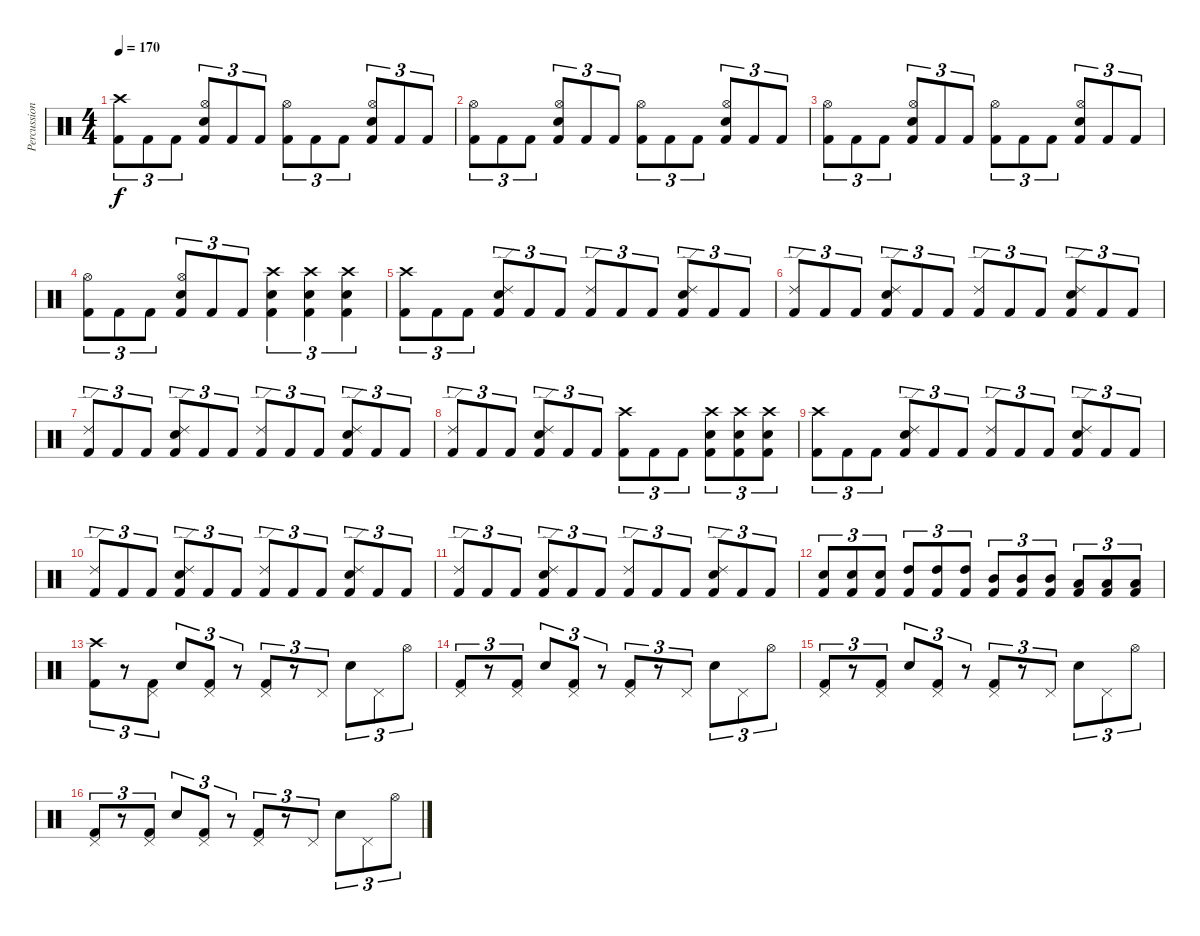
\track ("Percussioni" "Percussion") {instrument percussion}
\staff {score}
\articulation defaults
\ts (4 4)
\tempo 170
\clef neutral
\ks c
("Crash high (hit)" "Kick (hit) 2").8{tu (3 2) dy f} "Kick (hit) 2".8{tu (3 2)} "Kick (hit) 2".8{tu (3 2)} ("Hi-Hat (open)" "Snare (hit) 2" "Kick (hit) 2").8{tu (3 2)} "Kick (hit) 2".8{tu (3 2)} "Kick (hit) 2".8{tu (3 2)} ("Hi-Hat (open)" "Kick (hit) 2").8{tu (3 2)} "Kick (hit) 2".8{tu (3 2)} "Kick (hit) 2".8{tu (3 2)} ("Hi-Hat (open)" "Snare (hit) 2" "Kick (hit) 2").8{tu (3 2)} "Kick (hit) 2".8{tu (3 2)} "Kick (hit) 2".8{tu (3 2)} |
("Hi-Hat (open)" "Kick (hit) 2").8{tu (3 2)} "Kick (hit) 2".8{tu (3 2)} "Kick (hit) 2".8{tu (3 2)} ("Hi-Hat (open)" "Snare (hit) 2" "Kick (hit) 2").8{tu (3 2)} "Kick (hit) 2".8{tu (3 2)} "Kick (hit) 2".8{tu (3 2)} ("Hi-Hat (open)" "Kick (hit) 2").8{tu (3 2)} "Kick (hit) 2".8{tu (3 2)} "Kick (hit) 2".8{tu (3 2)} ("Hi-Hat (open)" "Snare (hit) 2" "Kick (hit) 2").8{tu (3 2)} "Kick (hit) 2".8{tu (3 2)} "Kick (hit) 2".8{tu (3 2)} |
("Hi-Hat (open)" "Kick (hit) 2").8{tu (3 2)} "Kick (hit) 2".8{tu (3 2)} "Kick (hit) 2".8{tu (3 2)} ("Hi-Hat (open)" "Snare (hit) 2" "Kick (hit) 2").8{tu (3 2)} "Kick (hit) 2".8{tu (3 2)} "Kick (hit) 2".8{tu (3 2)} ("Hi-Hat (open)" "Kick (hit) 2").8{tu (3 2)} "Kick (hit) 2".8{tu (3 2)} "Kick (hit) 2".8{tu (3 2)} ("Hi-Hat (open)" "Snare (hit) 2" "Kick (hit) 2").8{tu (3 2)} "Kick (hit) 2".8{tu (3 2)} "Kick (hit) 2".8{tu (3 2)} |
("Hi-Hat (open)" "Kick (hit) 2").8{tu (3 2)} "Kick (hit) 2".8{tu (3 2)} "Kick (hit) 2".8{tu (3 2)} ("Hi-Hat (open)" "Snare (hit) 2" "Kick (hit) 2").8{tu (3 2)} "Kick (hit) 2".8{tu (3 2)} "Kick (hit) 2".8{tu (3 2)} ("Crash high (hit)" "Snare (hit) 2" "Kick (hit) 2").4{tu (3 2)} ("Crash high (hit)" "Snare (hit) 2" "Kick (hit) 2").4{tu (3 2)} ("Crash high (hit)" "Snare (hit) 2" "Kick (hit) 2").4{tu (3 2)} |
("Crash high (hit)" "Kick (hit) 2").8{tu (3 2)} "Kick (hit) 2".8{tu (3 2)} "Kick (hit) 2".8{tu (3 2)} ("Ride (edge) 2" "Snare (hit) 2" "Kick (hit) 2").8{tu (3 2)} "Kick (hit) 2".8{tu (3 2)} "Kick (hit) 2".8{tu (3 2)} ("Ride (edge) 2" "Kick (hit) 2").8{tu (3 2)} "Kick (hit) 2".8{tu (3 2)} "Kick (hit) 2".8{tu (3 2)} ("Ride (edge) 2" "Snare (hit) 2" "Kick (hit) 2").8{tu (3 2)} "Kick (hit) 2".8{tu (3 2)} "Kick (hit) 2".8{tu (3 2)} |
("Ride (edge) 2" "Kick (hit) 2").8{tu (3 2)} "Kick (hit) 2".8{tu (3 2)} "Kick (hit) 2".8{tu (3 2)} ("Ride (edge) 2" "Snare (hit) 2" "Kick (hit) 2").8{tu (3 2)} "Kick (hit) 2".8{tu (3 2)} "Kick (hit) 2".8{tu (3 2)} ("Ride (edge) 2" "Kick (hit) 2").8{tu (3 2)} "Kick (hit) 2".8{tu (3 2)} "Kick (hit) 2".8{tu (3 2)} ("Ride (edge) 2" "Snare (hit) 2" "Kick (hit) 2").8{tu (3 2)} "Kick (hit) 2".8{tu (3 2)} "Kick (hit) 2".8{tu (3 2)} |
("Ride (edge) 2" "Kick (hit) 2").8{tu (3 2)} "Kick (hit) 2".8{tu (3 2)} "Kick (hit) 2".8{tu (3 2)} ("Ride (edge) 2" "Snare (hit) 2" "Kick (hit) 2").8{tu (3 2)} "Kick (hit) 2".8{tu (3 2)} "Kick (hit) 2".8{tu (3 2)} ("Ride (edge) 2" "Kick (hit) 2").8{tu (3 2)} "Kick (hit) 2".8{tu (3 2)} "Kick (hit) 2".8{tu (3 2)} ("Ride (edge) 2" "Snare (hit) 2" "Kick (hit) 2").8{tu (3 2)} "Kick (hit) 2".8{tu (3 2)} "Kick (hit) 2".8{tu (3 2)} |
("Ride (edge) 2" "Kick (hit) 2").8{tu (3 2)} "Kick (hit) 2".8{tu (3 2)} "Kick (hit) 2".8{tu (3 2)} ("Ride (edge) 2" "Snare (hit) 2" "Kick (hit) 2").8{tu (3 2)} "Kick (hit) 2".8{tu (3 2)} "Kick (hit) 2".8{tu (3 2)} ("Crash high (hit)" "Kick (hit) 2").8{tu (3 2)} "Kick (hit) 2".8{tu (3 2)} "Kick (hit) 2".8{tu (3 2)} ("Crash high (hit)" "Snare (hit) 2" "Kick (hit) 2").8{tu (3 2)} ("Crash high (hit)" "Snare (hit) 2" "Kick (hit) 2").8{tu (3 2)} ("Crash high (hit)" "Snare (hit) 2" "Kick (hit) 2").8{tu (3 2)} |
("Crash high (hit)" "Kick (hit) 2").8{tu (3 2)} "Kick (hit) 2".8{tu (3 2)} "Kick (hit) 2".8{tu (3 2)} ("Ride (edge) 2" "Snare (hit) 2" "Kick (hit) 2").8{tu (3 2)} "Kick (hit) 2".8{tu (3 2)} "Kick (hit) 2".8{tu (3 2)} ("Ride (edge) 2" "Kick (hit) 2").8{tu (3 2)} "Kick (hit) 2".8{tu (3 2)} "Kick (hit) 2".8{tu (3 2)} ("Ride (edge) 2" "Snare (hit) 2" "Kick (hit) 2").8{tu (3 2)} "Kick (hit) 2".8{tu (3 2)} "Kick (hit) 2".8{tu (3 2)} |
("Ride (edge) 2" "Kick (hit) 2").8{tu (3 2)} "Kick (hit) 2".8{tu (3 2)} "Kick (hit) 2".8{tu (3 2)} ("Ride (edge) 2" "Snare (hit) 2" "Kick (hit) 2").8{tu (3 2)} "Kick (hit) 2".8{tu (3 2)} "Kick (hit) 2".8{tu (3 2)} ("Ride (edge) 2" "Kick (hit) 2").8{tu (3 2)} "Kick (hit) 2".8{tu (3 2)} "Kick (hit) 2".8{tu (3 2)} ("Ride (edge) 2" "Snare (hit) 2" "Kick (hit) 2").8{tu (3 2)} "Kick (hit) 2".8{tu (3 2)} "Kick (hit) 2".8{tu (3 2)} |
("Ride (edge) 2" "Kick (hit) 2").8{tu (3 2)} "Kick (hit) 2".8{tu (3 2)} "Kick (hit) 2".8{tu (3 2)} ("Ride (edge) 2" "Snare (hit) 2" "Kick (hit) 2").8{tu (3 2)} "Kick (hit) 2".8{tu (3 2)} "Kick (hit) 2".8{tu (3 2)} ("Ride (edge) 2" "Kick (hit) 2").8{tu (3 2)} "Kick (hit) 2".8{tu (3 2)} "Kick (hit) 2".8{tu (3 2)} ("Ride (edge) 2" "Snare (hit) 2" "Kick (hit) 2").8{tu (3 2)} "Kick (hit) 2".8{tu (3 2)} "Kick (hit) 2".8{tu (3 2)} |
("Snare (hit) 2" "Kick (hit) 2").8{tu (3 2)} ("Snare (hit) 2" "Kick (hit) 2").8{tu (3 2)} ("Snare (hit) 2" "Kick (hit) 2").8{tu (3 2)} ("High Tom (hit)" "Kick (hit) 2").8{tu (3 2)} ("High Tom (hit)" "Kick (hit) 2").8{tu (3 2)} ("High Tom (hit)" "Kick (hit) 2").8{tu (3 2)} ("Mid Tom (hit)" "Kick (hit) 2").8{tu (3 2)} ("Mid Tom (hit)" "Kick (hit) 2").8{tu (3 2)} ("Mid Tom (hit)" "Kick (hit) 2").8{tu (3 2)} ("Low Tom (hit)" "Kick (hit) 2").8{tu (3 2)} ("Low Tom (hit)" "Kick (hit) 2").8{tu (3 2)} ("Low Tom (hit)" "Kick (hit) 2").8{tu (3 2)} |
("Crash high (hit)" "Kick (hit) 2").8{tu (3 2)} r.8{tu (3 2)} ("Pedal Hi-Hat (hit)" "Kick (hit) 2").8{tu (3 2)} "Snare (hit) 2".8{tu (3 2)} ("Pedal Hi-Hat (hit)" "Kick (hit) 2").8{tu (3 2)} r.8{tu (3 2)} ("Pedal Hi-Hat (hit)" "Kick (hit) 2").8{tu (3 2)} r.8{tu (3 2)} "Pedal Hi-Hat (hit)".8{tu (3 2)} "Snare (hit) 2".8{tu (3 2)} "Pedal Hi-Hat (hit)".8{tu (3 2)} "Hi-Hat (open)".8{tu (3 2)} |
("Pedal Hi-Hat (hit)" "Kick (hit) 2").8{tu (3 2)} r.8{tu (3 2)} ("Pedal Hi-Hat (hit)" "Kick (hit) 2").8{tu (3 2)} "Snare (hit) 2".8{tu (3 2)} ("Pedal Hi-Hat (hit)" "Kick (hit) 2").8{tu (3 2)} r.8{tu (3 2)} ("Pedal Hi-Hat (hit)" "Kick (hit) 2").8{tu (3 2)} r.8{tu (3 2)} "Pedal Hi-Hat (hit)".8{tu (3 2)} "Snare (hit) 2".8{tu (3 2)} "Pedal Hi-Hat (hit)".8{tu (3 2)} "Hi-Hat (open)".8{tu (3 2)} |
("Pedal Hi-Hat (hit)" "Kick (hit) 2").8{tu (3 2)} r.8{tu (3 2)} ("Pedal Hi-Hat (hit)" "Kick (hit) 2").8{tu (3 2)} "Snare (hit) 2".8{tu (3 2)} ("Pedal Hi-Hat (hit)" "Kick (hit) 2").8{tu (3 2)} r.8{tu (3 2)} ("Pedal Hi-Hat (hit)" "Kick (hit) 2").8{tu (3 2)} r.8{tu (3 2)} "Pedal Hi-Hat (hit)".8{tu (3 2)} "Snare (hit) 2".8{tu (3 2)} "Pedal Hi-Hat (hit)".8{tu (3 2)} "Hi-Hat (open)".8{tu (3 2)} |
("Pedal Hi-Hat (hit)" "Kick (hit) 2").8{tu (3 2)} r.8{tu (3 2)} ("Pedal Hi-Hat (hit)" "Kick (hit) 2").8{tu (3 2)} "Snare (hit) 2".8{tu (3 2)} ("Pedal Hi-Hat (hit)" "Kick (hit) 2").8{tu (3 2)} r.8{tu (3 2)} ("Pedal Hi-Hat (hit)" "Kick (hit) 2").8{tu (3 2)} r.8{tu (3 2)} "Pedal Hi-Hat (hit)".8{tu (3 2)} "Snare (hit) 2".8{tu (3 2)} "Pedal Hi-Hat (hit)".8{tu (3 2)} "Hi-Hat (open)".8{tu (3 2)}
